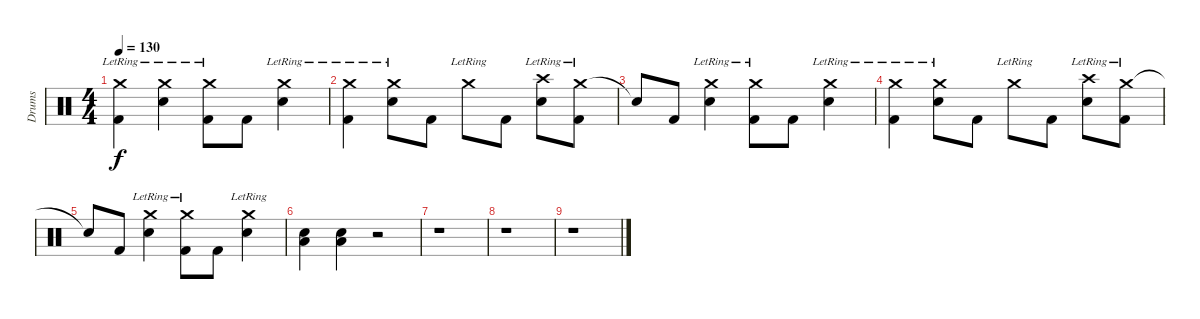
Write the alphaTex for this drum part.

\track ("Drums" "Drums") {instrument percussion}
\staff {score}
\articulation defaults
\ts (4 4)
\tempo 130
\clef neutral
\ks c
("Crash medium (hit)"{lr} "Kick (hit) 2").4{dy f} ("Crash medium (hit)"{lr} "Electric Snare (hit)").4 ("Crash medium (hit)"{lr} "Kick (hit) 2").8 "Kick (hit) 2".8 ("Crash medium (hit)"{lr} "Electric Snare (hit)").4 |
("Crash medium (hit)"{lr} "Kick (hit) 2").4 ("Crash medium (hit)"{lr} "Electric Snare (hit)").8 "Kick (hit) 2".8 "Crash medium (hit)"{lr}.8 "Kick (hit) 2".8 ("Crash high (hit)"{lr} "Electric Snare (hit)").8 ("Crash medium (hit)"{lr} "Kick (hit) 2").8 |
"Snare (hit)"{t}.8 "Kick (hit) 2".8 ("Crash medium (hit)"{lr} "Electric Snare (hit)").4 ("Crash medium (hit)"{lr} "Kick (hit) 2").8 "Kick (hit) 2".8 ("Crash medium (hit)"{lr} "Electric Snare (hit)").4 |
("Crash medium (hit)"{lr} "Kick (hit) 2").4 ("Crash medium (hit)"{lr} "Electric Snare (hit)").8 "Kick (hit) 2".8 "Crash medium (hit)"{lr}.8 "Kick (hit) 2".8 ("Crash high (hit)"{lr} "Electric Snare (hit)").8 ("Crash medium (hit)"{lr} "Kick (hit) 2").8 |
"Snare (hit)"{t}.8 "Kick (hit) 2".8 ("Crash medium (hit)"{lr} "Electric Snare (hit)").4 ("Crash medium (hit)"{lr} "Kick (hit) 2").8 "Kick (hit) 2".8 ("Crash medium (hit)"{lr} "Electric Snare (hit)").4 |
("Low Floor Tom (hit)" "Electric Snare (hit)").4 ("Low Floor Tom (hit)" "Electric Snare (hit)").4 r.2 |
r.1 |
r.1 |
r.1
